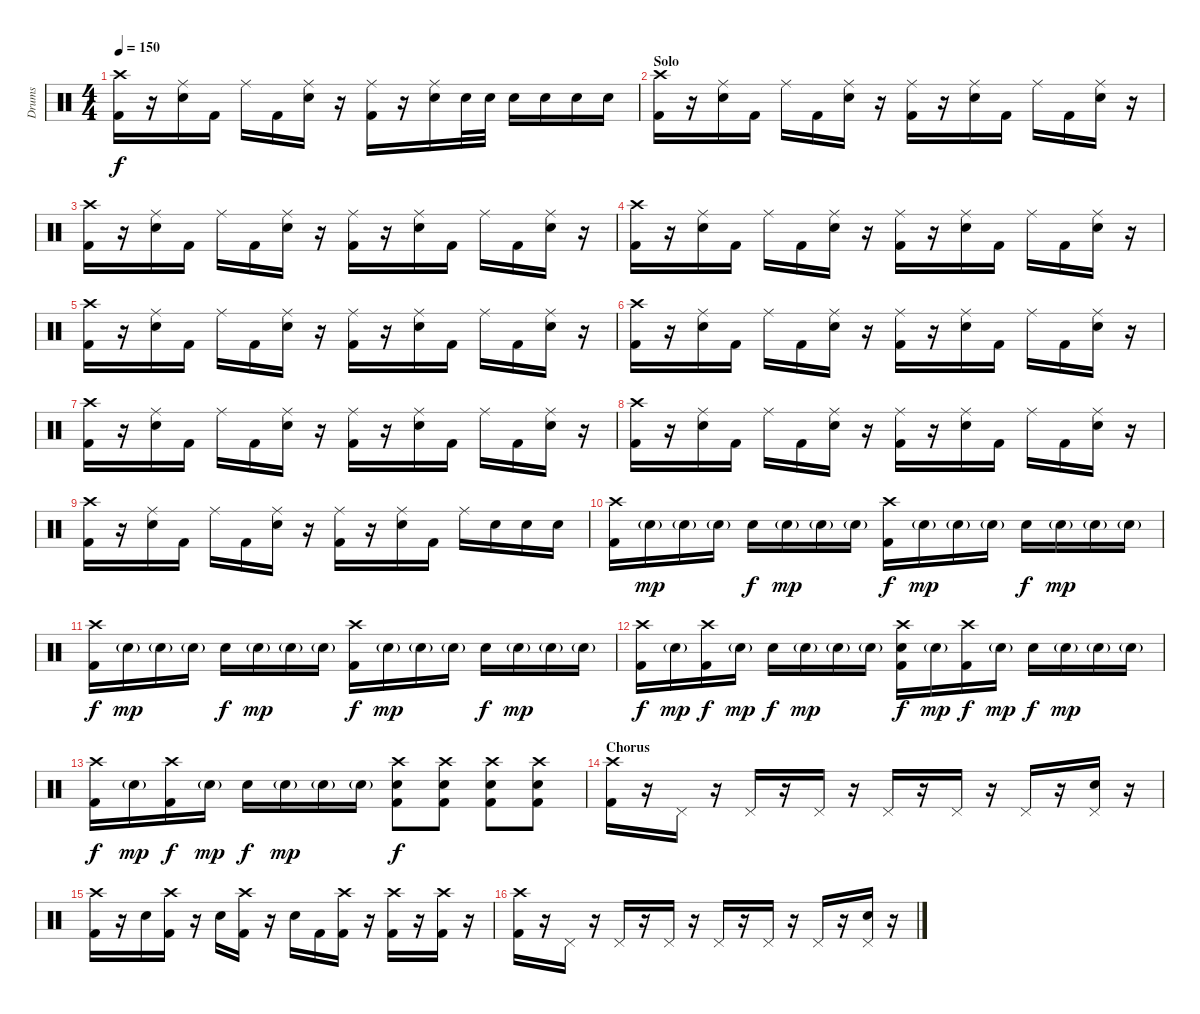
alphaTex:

\track ("Drums" "Drums") {instrument percussion}
\staff {score}
\articulation defaults
\ts (4 4)
\tempo 150
\clef neutral
\ks c
("Crash high (hit)" "Kick (hit) 2").16{dy f} r.16 ("Ride (middle)" "Electric Snare (hit)").16 "Kick (hit) 2".16 "Ride (middle)".16 "Kick (hit) 2".16 ("Ride (middle)" "Electric Snare (hit)").16 r.16 ("Ride (middle)" "Kick (hit) 2").16 r.16 ("Ride (middle)" "Electric Snare (hit)").16 "Electric Snare (hit)".32 "Electric Snare (hit)".32 "Electric Snare (hit)".16 "Electric Snare (hit)".16 "Electric Snare (hit)".16 "Electric Snare (hit)".16 |
\section ("" "Solo")
("Crash high (hit)" "Kick (hit) 2").16 r.16 ("Ride (middle)" "Electric Snare (hit)").16 "Kick (hit) 2".16 "Ride (middle)".16 "Kick (hit) 2".16 ("Ride (middle)" "Electric Snare (hit)").16 r.16 ("Ride (middle)" "Kick (hit) 2").16 r.16 ("Ride (middle)" "Electric Snare (hit)").16 "Kick (hit) 2".16 "Ride (middle)".16 "Kick (hit) 2".16 ("Ride (middle)" "Electric Snare (hit)").16 r.16 |
("Crash high (hit)" "Kick (hit) 2").16 r.16 ("Ride (middle)" "Electric Snare (hit)").16 "Kick (hit) 2".16 "Ride (middle)".16 "Kick (hit) 2".16 ("Ride (middle)" "Electric Snare (hit)").16 r.16 ("Ride (middle)" "Kick (hit) 2").16 r.16 ("Ride (middle)" "Electric Snare (hit)").16 "Kick (hit) 2".16 "Ride (middle)".16 "Kick (hit) 2".16 ("Ride (middle)" "Electric Snare (hit)").16 r.16 |
("Crash high (hit)" "Kick (hit) 2").16 r.16 ("Ride (middle)" "Electric Snare (hit)").16 "Kick (hit) 2".16 "Ride (middle)".16 "Kick (hit) 2".16 ("Ride (middle)" "Electric Snare (hit)").16 r.16 ("Ride (middle)" "Kick (hit) 2").16 r.16 ("Ride (middle)" "Electric Snare (hit)").16 "Kick (hit) 2".16 "Ride (middle)".16 "Kick (hit) 2".16 ("Ride (middle)" "Electric Snare (hit)").16 r.16 |
("Crash high (hit)" "Kick (hit) 2").16 r.16 ("Ride (middle)" "Electric Snare (hit)").16 "Kick (hit) 2".16 "Ride (middle)".16 "Kick (hit) 2".16 ("Ride (middle)" "Electric Snare (hit)").16 r.16 ("Ride (middle)" "Kick (hit) 2").16 r.16 ("Ride (middle)" "Electric Snare (hit)").16 "Kick (hit) 2".16 "Ride (middle)".16 "Kick (hit) 2".16 ("Ride (middle)" "Electric Snare (hit)").16 r.16 |
("Crash high (hit)" "Kick (hit) 2").16 r.16 ("Ride (middle)" "Electric Snare (hit)").16 "Kick (hit) 2".16 "Ride (middle)".16 "Kick (hit) 2".16 ("Ride (middle)" "Electric Snare (hit)").16 r.16 ("Ride (middle)" "Kick (hit) 2").16 r.16 ("Ride (middle)" "Electric Snare (hit)").16 "Kick (hit) 2".16 "Ride (middle)".16 "Kick (hit) 2".16 ("Ride (middle)" "Electric Snare (hit)").16 r.16 |
("Crash high (hit)" "Kick (hit) 2").16 r.16 ("Ride (middle)" "Electric Snare (hit)").16 "Kick (hit) 2".16 "Ride (middle)".16 "Kick (hit) 2".16 ("Ride (middle)" "Electric Snare (hit)").16 r.16 ("Ride (middle)" "Kick (hit) 2").16 r.16 ("Ride (middle)" "Electric Snare (hit)").16 "Kick (hit) 2".16 "Ride (middle)".16 "Kick (hit) 2".16 ("Ride (middle)" "Electric Snare (hit)").16 r.16 |
("Crash high (hit)" "Kick (hit) 2").16 r.16 ("Ride (middle)" "Electric Snare (hit)").16 "Kick (hit) 2".16 "Ride (middle)".16 "Kick (hit) 2".16 ("Ride (middle)" "Electric Snare (hit)").16 r.16 ("Ride (middle)" "Kick (hit) 2").16 r.16 ("Ride (middle)" "Electric Snare (hit)").16 "Kick (hit) 2".16 "Ride (middle)".16 "Kick (hit) 2".16 ("Ride (middle)" "Electric Snare (hit)").16 r.16 |
("Crash high (hit)" "Kick (hit) 2").16 r.16 ("Ride (middle)" "Electric Snare (hit)").16 "Kick (hit) 2".16 "Ride (middle)".16 "Kick (hit) 2".16 ("Ride (middle)" "Electric Snare (hit)").16 r.16 ("Ride (middle)" "Kick (hit) 2").16 r.16 ("Ride (middle)" "Electric Snare (hit)").16 "Kick (hit) 2".16 "Ride (middle)".16 "Electric Snare (hit)".16 "Electric Snare (hit)".16 "Electric Snare (hit)".16 |
("Crash high (hit)" "Kick (hit) 2").16 "Electric Snare (hit)"{g}.16{dy mp} "Electric Snare (hit)"{g}.16 "Electric Snare (hit)"{g}.16 "Electric Snare (hit)".16{dy f} "Electric Snare (hit)"{g}.16{dy mp} "Electric Snare (hit)"{g}.16 "Electric Snare (hit)"{g}.16 ("Crash high (hit)" "Kick (hit) 2").16{dy f} "Electric Snare (hit)"{g}.16{dy mp} "Electric Snare (hit)"{g}.16 "Electric Snare (hit)"{g}.16 "Electric Snare (hit)".16{dy f} "Electric Snare (hit)"{g}.16{dy mp} "Electric Snare (hit)"{g}.16 "Electric Snare (hit)"{g}.16 |
("Crash high (hit)" "Kick (hit) 2").16{dy f} "Electric Snare (hit)"{g}.16{dy mp} "Electric Snare (hit)"{g}.16 "Electric Snare (hit)"{g}.16 "Electric Snare (hit)".16{dy f} "Electric Snare (hit)"{g}.16{dy mp} "Electric Snare (hit)"{g}.16 "Electric Snare (hit)"{g}.16 ("Crash high (hit)" "Kick (hit) 2").16{dy f} "Electric Snare (hit)"{g}.16{dy mp} "Electric Snare (hit)"{g}.16 "Electric Snare (hit)"{g}.16 "Electric Snare (hit)".16{dy f} "Electric Snare (hit)"{g}.16{dy mp} "Electric Snare (hit)"{g}.16 "Electric Snare (hit)"{g}.16 |
("Crash high (hit)" "Kick (hit) 2").16{dy f} "Electric Snare (hit)"{g}.16{dy mp} ("Crash high (hit)" "Kick (hit) 2").16{dy f} "Electric Snare (hit)"{g}.16{dy mp} "Electric Snare (hit)".16{dy f} "Electric Snare (hit)"{g}.16{dy mp} "Electric Snare (hit)"{g}.16 "Electric Snare (hit)"{g}.16 ("Crash high (hit)" "Electric Snare (hit)" "Kick (hit) 2").16{dy f} "Electric Snare (hit)"{g}.16{dy mp} ("Crash high (hit)" "Kick (hit) 2").16{dy f} "Electric Snare (hit)"{g}.16{dy mp} "Electric Snare (hit)".16{dy f} "Electric Snare (hit)"{g}.16{dy mp} "Electric Snare (hit)"{g}.16 "Electric Snare (hit)"{g}.16 |
("Crash high (hit)" "Kick (hit) 2").16{dy f} "Electric Snare (hit)"{g}.16{dy mp} ("Crash high (hit)" "Kick (hit) 2").16{dy f} "Electric Snare (hit)"{g}.16{dy mp} "Electric Snare (hit)".16{dy f} "Electric Snare (hit)"{g}.16{dy mp} "Electric Snare (hit)"{g}.16 "Electric Snare (hit)"{g}.16 ("Crash high (hit)" "Electric Snare (hit)" "Kick (hit) 2").8{dy f} ("Crash high (hit)" "Electric Snare (hit)" "Kick (hit) 2").8 ("Crash high (hit)" "Electric Snare (hit)" "Kick (hit) 2").8 ("Crash high (hit)" "Electric Snare (hit)" "Kick (hit) 2").8 |
\section ("" "Chorus")
("Crash high (hit)" "Kick (hit) 2").16 r.16 "Pedal Hi-Hat (hit)".16 r.16 "Pedal Hi-Hat (hit)".16 r.16 "Pedal Hi-Hat (hit)".16 r.16 "Pedal Hi-Hat (hit)".16 r.16 "Pedal Hi-Hat (hit)".16 r.16 "Pedal Hi-Hat (hit)".16 r.16 ("Pedal Hi-Hat (hit)" "Electric Snare (hit)").16 r.16 |
("Crash high (hit)" "Kick (hit) 2").16 r.16 "Electric Snare (hit)".16 ("Crash high (hit)" "Kick (hit) 2").16 r.16 "Electric Snare (hit)".16 ("Crash high (hit)" "Kick (hit) 2").16 r.16 "Electric Snare (hit)".16 "Kick (hit) 2".16 ("Crash high (hit)" "Kick (hit) 2").16 r.16 ("Crash high (hit)" "Kick (hit) 2").16 r.16 ("Crash high (hit)" "Kick (hit) 2").16 r.16 |
("Crash high (hit)" "Kick (hit) 2").16 r.16 "Pedal Hi-Hat (hit)".16 r.16 "Pedal Hi-Hat (hit)".16 r.16 "Pedal Hi-Hat (hit)".16 r.16 "Pedal Hi-Hat (hit)".16 r.16 "Pedal Hi-Hat (hit)".16 r.16 "Pedal Hi-Hat (hit)".16 r.16 ("Pedal Hi-Hat (hit)" "Electric Snare (hit)").16 r.16
